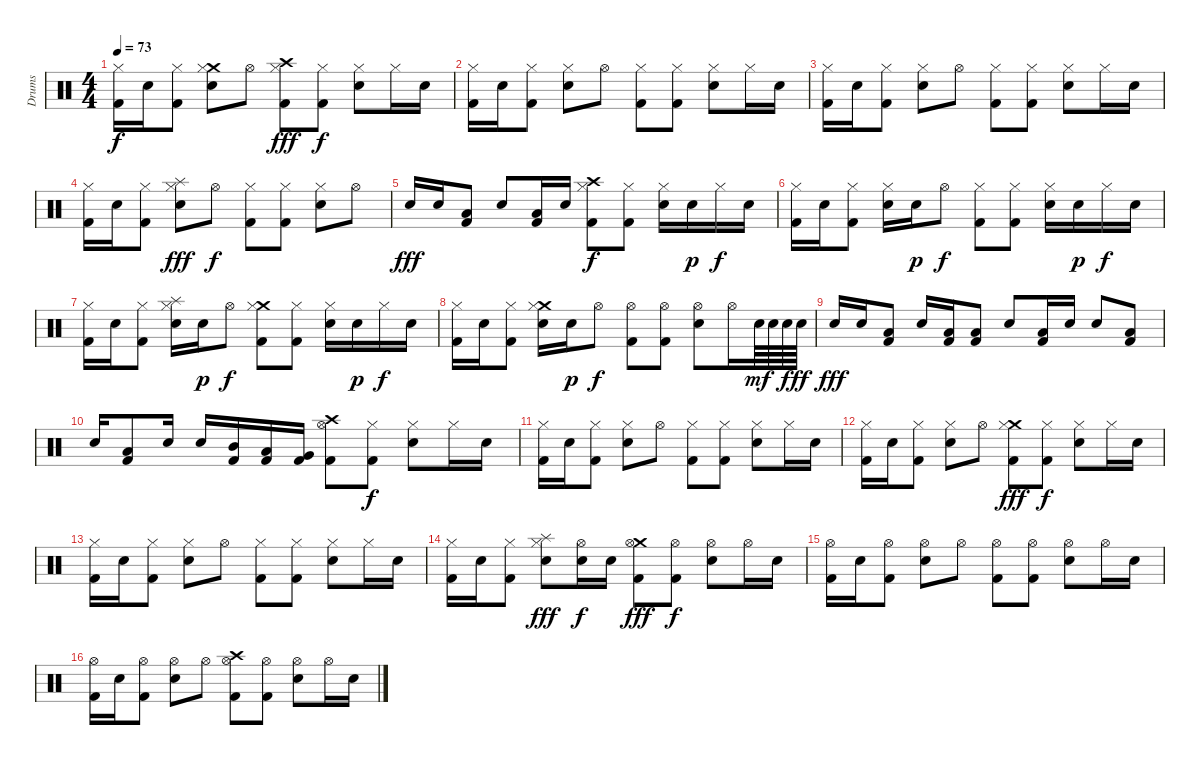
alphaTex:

\track ("Drums" "Drums") {instrument percussion}
\staff {score}
\articulation defaults
\ts (4 4)
\tempo 73
\clef neutral
\ks c
("Hi-Hat (closed)" "Kick (hit) 2").16{dy f} "Electric Snare (hit)".16 ("Hi-Hat (closed)" "Kick (hit) 2").8 ("Crash medium (hit)" "Hi-Hat (closed)" "Electric Snare (hit)").8 "Hi-Hat (open)".8 ("Crash high (hit)" "Hi-Hat (closed)" "Kick (hit) 2").8{dy fff} ("Hi-Hat (closed)" "Kick (hit) 2").8{dy f} ("Hi-Hat (closed)" "Electric Snare (hit)").8 "Hi-Hat (closed)".16 "Electric Snare (hit)".16 |
("Hi-Hat (closed)" "Kick (hit) 2").16 "Electric Snare (hit)".16 ("Hi-Hat (closed)" "Kick (hit) 2").8 ("Hi-Hat (closed)" "Electric Snare (hit)").8 "Hi-Hat (open)".8 ("Hi-Hat (closed)" "Kick (hit) 2").8 ("Hi-Hat (closed)" "Kick (hit) 2").8 ("Hi-Hat (closed)" "Electric Snare (hit)").8 "Hi-Hat (closed)".16 "Electric Snare (hit)".16 |
("Hi-Hat (closed)" "Kick (hit) 2").16 "Electric Snare (hit)".16 ("Hi-Hat (closed)" "Kick (hit) 2").8 ("Hi-Hat (closed)" "Electric Snare (hit)").8 "Hi-Hat (open)".8 ("Hi-Hat (closed)" "Kick (hit) 2").8 ("Hi-Hat (closed)" "Kick (hit) 2").8 ("Hi-Hat (closed)" "Electric Snare (hit)").8 "Hi-Hat (closed)".16 "Electric Snare (hit)".16 |
("Hi-Hat (closed)" "Kick (hit) 2").16 "Electric Snare (hit)".16 ("Hi-Hat (closed)" "Kick (hit) 2").8 ("Splash (hit)" "Hi-Hat (closed)" "Electric Snare (hit)").8{dy fff} "Hi-Hat (open)".8{dy f} ("Hi-Hat (closed)" "Kick (hit) 2").8 ("Hi-Hat (closed)" "Kick (hit) 2").8 ("Hi-Hat (closed)" "Electric Snare (hit)").8 "Hi-Hat (open)".8 |
"Electric Snare (hit)".16{dy fff} "Electric Snare (hit)".16 ("Low Tom (hit)" "Kick (hit) 2").8 "Electric Snare (hit)".8 ("Low Tom (hit)" "Kick (hit) 2").16 "Electric Snare (hit)".16 ("Crash high (hit)" "Hi-Hat (closed)" "Kick (hit) 2").8{dy f} ("Hi-Hat (closed)" "Kick (hit) 2").8 ("Hi-Hat (closed)" "Electric Snare (hit)").16 "Electric Snare (hit)".16{dy p} "Hi-Hat (closed)".16{dy f} "Electric Snare (hit)".16 |
("Hi-Hat (closed)" "Kick (hit) 2").16 "Electric Snare (hit)".16 ("Hi-Hat (closed)" "Kick (hit) 2").8 ("Hi-Hat (closed)" "Electric Snare (hit)").16 "Electric Snare (hit)".16{dy p} "Hi-Hat (open)".8{dy f} ("Hi-Hat (closed)" "Kick (hit) 2").8 ("Hi-Hat (closed)" "Kick (hit) 2").8 ("Hi-Hat (closed)" "Electric Snare (hit)").16 "Electric Snare (hit)".16{dy p} "Hi-Hat (closed)".16{dy f} "Electric Snare (hit)".16 |
("Hi-Hat (closed)" "Kick (hit) 2").16 "Electric Snare (hit)".16 ("Hi-Hat (closed)" "Kick (hit) 2").8 ("Splash (hit)" "Hi-Hat (closed)" "Electric Snare (hit)").16 "Electric Snare (hit)".16{dy p} "Hi-Hat (open)".8{dy f} ("Crash medium (hit)" "Hi-Hat (closed)" "Kick (hit) 2").8 ("Hi-Hat (closed)" "Kick (hit) 2").8 ("Hi-Hat (closed)" "Electric Snare (hit)").16 "Electric Snare (hit)".16{dy p} "Hi-Hat (closed)".16{dy f} "Electric Snare (hit)".16 |
("Hi-Hat (closed)" "Kick (hit) 2").16 "Electric Snare (hit)".16 ("Hi-Hat (closed)" "Kick (hit) 2").8 ("Crash medium (hit)" "Hi-Hat (closed)" "Electric Snare (hit)").16 "Electric Snare (hit)".16{dy p} "Hi-Hat (open)".8{dy f} ("Hi-Hat (open)" "Kick (hit) 2").8 ("Hi-Hat (open)" "Kick (hit) 2").8 ("Hi-Hat (open)" "Electric Snare (hit)").8 "Hi-Hat (open)".16 "Electric Snare (hit)".64{dy mf} "Electric Snare (hit)".64 "Electric Snare (hit)".64{dy f} "Electric Snare (hit)".64{dy ff} |
"Electric Snare (hit)".16{dy fff} "Electric Snare (hit)".16 ("Low Tom (hit)" "Kick (hit) 2").8 "Electric Snare (hit)".16 ("Low Tom (hit)" "Kick (hit) 2").16 ("Low Tom (hit)" "Kick (hit) 2").8 "Electric Snare (hit)".8 ("Low Tom (hit)" "Kick (hit) 2").16 "Electric Snare (hit)".16 "Electric Snare (hit)".8 ("Low Tom (hit)" "Kick (hit) 2").8 |
"Electric Snare (hit)".16 ("Low Tom (hit)" "Kick (hit) 2").8 "Electric Snare (hit)".16 "Electric Snare (hit)".16 ("Mid Tom (hit)" "Kick (hit) 2").16 ("Low Tom (hit)" "Kick (hit) 2").16 ("Very Low Tom (hit)" "Kick (hit) 2").16 ("Crash high (hit)" "Hi-Hat (open)" "Kick (hit) 2").8 ("Hi-Hat (closed)" "Kick (hit) 2").8{dy f} ("Hi-Hat (closed)" "Electric Snare (hit)").8 "Hi-Hat (closed)".16 "Electric Snare (hit)".16 |
("Hi-Hat (closed)" "Kick (hit) 2").16 "Electric Snare (hit)".16 ("Hi-Hat (closed)" "Kick (hit) 2").8 ("Hi-Hat (closed)" "Electric Snare (hit)").8 "Hi-Hat (open)".8 ("Hi-Hat (closed)" "Kick (hit) 2").8 ("Hi-Hat (closed)" "Kick (hit) 2").8 ("Hi-Hat (closed)" "Electric Snare (hit)").8 "Hi-Hat (closed)".16 "Electric Snare (hit)".16 |
("Hi-Hat (closed)" "Kick (hit) 2").16 "Electric Snare (hit)".16 ("Hi-Hat (closed)" "Kick (hit) 2").8 ("Hi-Hat (closed)" "Electric Snare (hit)").8 "Hi-Hat (open)".8 ("Crash medium (hit)" "Hi-Hat (closed)" "Kick (hit) 2").8{dy fff} ("Hi-Hat (closed)" "Kick (hit) 2").8{dy f} ("Hi-Hat (closed)" "Electric Snare (hit)").8 "Hi-Hat (closed)".16 "Electric Snare (hit)".16 |
("Hi-Hat (closed)" "Kick (hit) 2").16 "Electric Snare (hit)".16 ("Hi-Hat (closed)" "Kick (hit) 2").8 ("Hi-Hat (closed)" "Electric Snare (hit)").8 "Hi-Hat (open)".8 ("Hi-Hat (closed)" "Kick (hit) 2").8 ("Hi-Hat (closed)" "Kick (hit) 2").8 ("Hi-Hat (closed)" "Electric Snare (hit)").8 "Hi-Hat (closed)".16 "Electric Snare (hit)".16 |
("Hi-Hat (closed)" "Kick (hit) 2").16 "Electric Snare (hit)".16 ("Hi-Hat (closed)" "Kick (hit) 2").8 ("Splash (hit)" "Hi-Hat (closed)" "Electric Snare (hit)").8{dy fff} ("Hi-Hat (open)" "Electric Snare (hit)").16{dy f} "Electric Snare (hit)".16 ("Crash medium (hit)" "Hi-Hat (open)" "Kick (hit) 2").8{dy fff} ("Hi-Hat (open)" "Kick (hit) 2").8{dy f} ("Hi-Hat (open)" "Electric Snare (hit)").8 "Hi-Hat (open)".16 "Electric Snare (hit)".16 |
("Hi-Hat (open)" "Kick (hit) 2").16 "Electric Snare (hit)".16 ("Hi-Hat (open)" "Kick (hit) 2").8 ("Hi-Hat (open)" "Electric Snare (hit)").8 "Hi-Hat (open)".8 ("Hi-Hat (open)" "Kick (hit) 2").8 ("Hi-Hat (open)" "Kick (hit) 2").8 ("Hi-Hat (open)" "Electric Snare (hit)").8 "Hi-Hat (open)".16 "Electric Snare (hit)".16 |
("Hi-Hat (open)" "Kick (hit) 2").16 "Electric Snare (hit)".16 ("Hi-Hat (open)" "Kick (hit) 2").8 ("Hi-Hat (open)" "Electric Snare (hit)").8 "Hi-Hat (open)".8 ("Crash high (hit)" "Hi-Hat (open)" "Kick (hit) 2").8 ("Hi-Hat (open)" "Kick (hit) 2").8 ("Hi-Hat (open)" "Electric Snare (hit)").8 "Hi-Hat (open)".16 "Electric Snare (hit)".16
